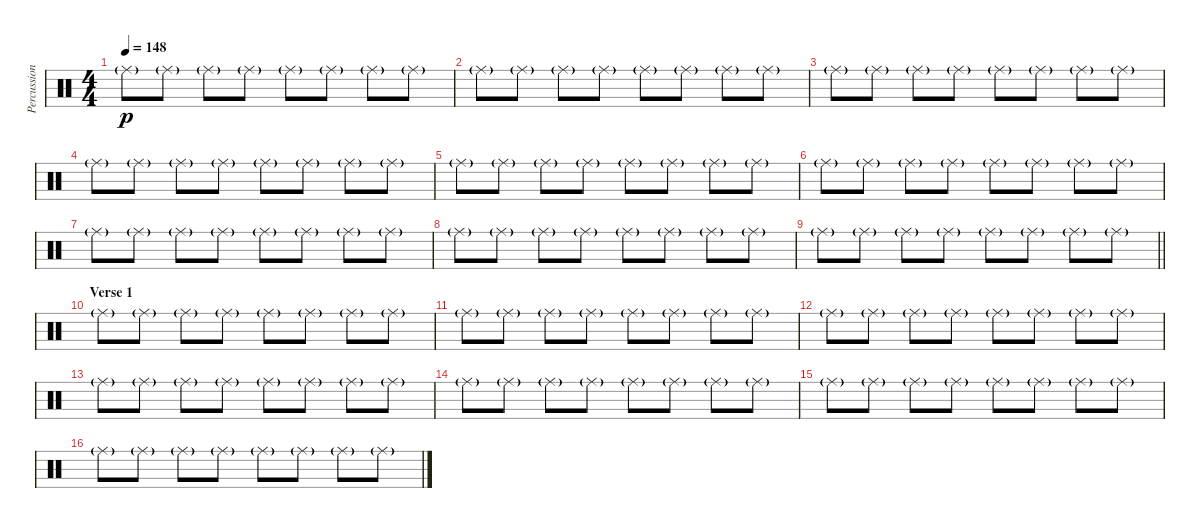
\track ("Percussions" "Percussion") {instrument percussion}
\staff {score}
\articulation defaults
\ts (4 4)
\tempo 148
\clef neutral
\ks c "Ride (middle)"{g}.8{dy p} "Ride (middle)"{g}.8 "Ride (middle)"{g}.8 "Ride (middle)"{g}.8 "Ride (middle)"{g}.8 "Ride (middle)"{g}.8 "Ride (middle)"{g}.8 "Ride (middle)"{g}.8
|
"Ride (middle)"{g}.8 "Ride (middle)"{g}.8 "Ride (middle)"{g}.8 "Ride (middle)"{g}.8 "Ride (middle)"{g}.8 "Ride (middle)"{g}.8 "Ride (middle)"{g}.8 "Ride (middle)"{g}.8 |
"Ride (middle)"{g}.8 "Ride (middle)"{g}.8 "Ride (middle)"{g}.8 "Ride (middle)"{g}.8 "Ride (middle)"{g}.8 "Ride (middle)"{g}.8 "Ride (middle)"{g}.8 "Ride (middle)"{g}.8 |
"Ride (middle)"{g}.8 "Ride (middle)"{g}.8 "Ride (middle)"{g}.8 "Ride (middle)"{g}.8 "Ride (middle)"{g}.8 "Ride (middle)"{g}.8 "Ride (middle)"{g}.8 "Ride (middle)"{g}.8 |
"Ride (middle)"{g}.8 "Ride (middle)"{g}.8 "Ride (middle)"{g}.8 "Ride (middle)"{g}.8 "Ride (middle)"{g}.8 "Ride (middle)"{g}.8 "Ride (middle)"{g}.8 "Ride (middle)"{g}.8 |
"Ride (middle)"{g}.8 "Ride (middle)"{g}.8 "Ride (middle)"{g}.8 "Ride (middle)"{g}.8 "Ride (middle)"{g}.8 "Ride (middle)"{g}.8 "Ride (middle)"{g}.8 "Ride (middle)"{g}.8 |
"Ride (middle)"{g}.8 "Ride (middle)"{g}.8 "Ride (middle)"{g}.8 "Ride (middle)"{g}.8 "Ride (middle)"{g}.8 "Ride (middle)"{g}.8 "Ride (middle)"{g}.8 "Ride (middle)"{g}.8 |
"Ride (middle)"{g}.8 "Ride (middle)"{g}.8 "Ride (middle)"{g}.8 "Ride (middle)"{g}.8 "Ride (middle)"{g}.8 "Ride (middle)"{g}.8 "Ride (middle)"{g}.8 "Ride (middle)"{g}.8 |
\barLineRight lightlight "Ride (middle)"{g}.8 "Ride (middle)"{g}.8 "Ride (middle)"{g}.8 "Ride (middle)"{g}.8 "Ride (middle)"{g}.8 "Ride (middle)"{g}.8 "Ride (middle)"{g}.8 "Ride (middle)"{g}.8
|
\section ("" "Verse 1")
"Ride (middle)"{g}.8 "Ride (middle)"{g}.8 "Ride (middle)"{g}.8 "Ride (middle)"{g}.8 "Ride (middle)"{g}.8 "Ride (middle)"{g}.8 "Ride (middle)"{g}.8 "Ride (middle)"{g}.8 |
"Ride (middle)"{g}.8 "Ride (middle)"{g}.8 "Ride (middle)"{g}.8 "Ride (middle)"{g}.8 "Ride (middle)"{g}.8 "Ride (middle)"{g}.8 "Ride (middle)"{g}.8 "Ride (middle)"{g}.8 |
"Ride (middle)"{g}.8 "Ride (middle)"{g}.8 "Ride (middle)"{g}.8 "Ride (middle)"{g}.8 "Ride (middle)"{g}.8 "Ride (middle)"{g}.8 "Ride (middle)"{g}.8 "Ride (middle)"{g}.8 |
"Ride (middle)"{g}.8 "Ride (middle)"{g}.8 "Ride (middle)"{g}.8 "Ride (middle)"{g}.8 "Ride (middle)"{g}.8 "Ride (middle)"{g}.8 "Ride (middle)"{g}.8 "Ride (middle)"{g}.8 |
"Ride (middle)"{g}.8 "Ride (middle)"{g}.8 "Ride (middle)"{g}.8 "Ride (middle)"{g}.8 "Ride (middle)"{g}.8 "Ride (middle)"{g}.8 "Ride (middle)"{g}.8 "Ride (middle)"{g}.8 |
"Ride (middle)"{g}.8 "Ride (middle)"{g}.8 "Ride (middle)"{g}.8 "Ride (middle)"{g}.8 "Ride (middle)"{g}.8 "Ride (middle)"{g}.8 "Ride (middle)"{g}.8 "Ride (middle)"{g}.8 |
"Ride (middle)"{g}.8 "Ride (middle)"{g}.8 "Ride (middle)"{g}.8 "Ride (middle)"{g}.8 "Ride (middle)"{g}.8 "Ride (middle)"{g}.8 "Ride (middle)"{g}.8 "Ride (middle)"{g}.8
